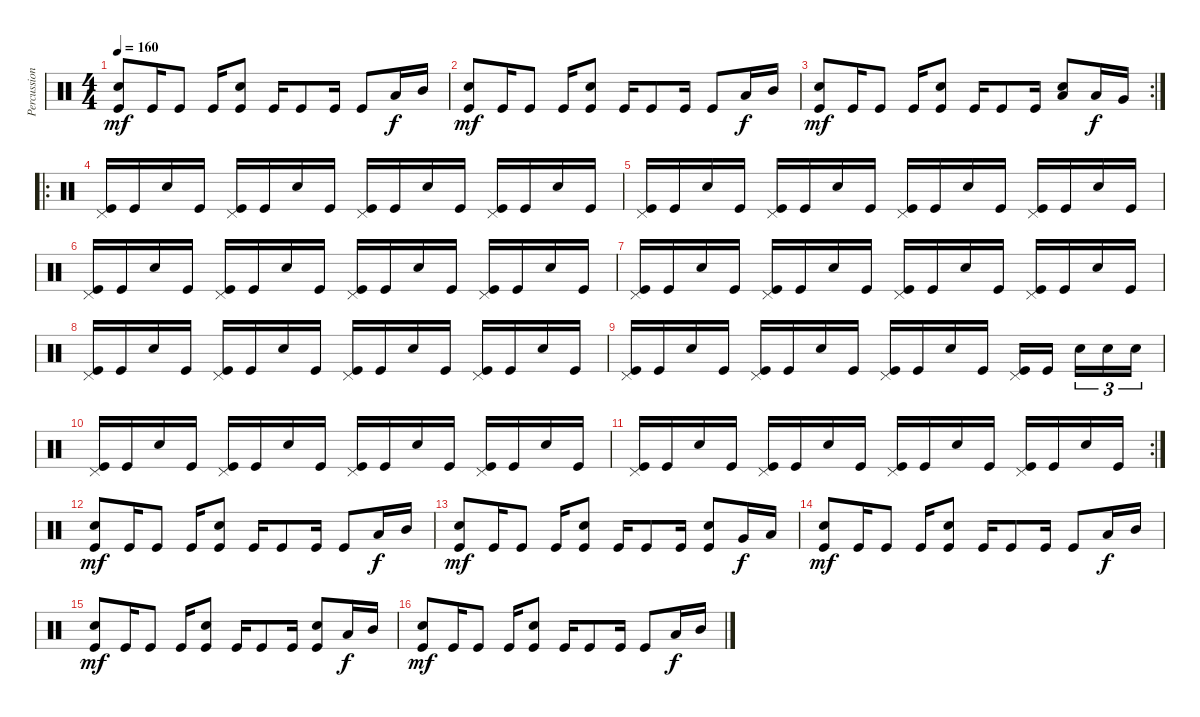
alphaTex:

\track ("Percussion" "Percussion") {instrument percussion}
\staff {score}
\articulation defaults
\ts (4 4)
\tempo 160
\clef neutral
\ks c
("Kick (hit)" "Electric Snare (hit)").8{dy mf} "Kick (hit)".16 "Kick (hit)".8 "Kick (hit)".16 ("Kick (hit)" "Electric Snare (hit)").8 "Kick (hit)".16 "Kick (hit)".8 "Kick (hit)".16 "Kick (hit)".8 "Low Tom (hit)".16{dy f} "Mid Tom (hit)".16 |
("Kick (hit)" "Electric Snare (hit)").8{dy mf} "Kick (hit)".16 "Kick (hit)".8 "Kick (hit)".16 ("Kick (hit)" "Snare (hit) 2").8 "Kick (hit)".16 "Kick (hit)".8 "Kick (hit)".16 "Kick (hit)".8 "Low Tom (hit)".16{dy f} "Mid Tom (hit)".16 |
\rc 2
("Kick (hit)" "Electric Snare (hit)").8{dy mf} "Kick (hit)".16 "Kick (hit)".8 "Kick (hit)".16 ("Kick (hit)" "Electric Snare (hit)").8 "Kick (hit)".16 "Kick (hit)".8 "Kick (hit)".16 ("Low Tom (hit)" "Electric Snare (hit)").8 "Low Tom (hit)".16{dy f} "Very Low Tom (hit)".16 |
\ro
("Kick (hit)" "Pedal Hi-Hat (hit)").16 "Kick (hit)".16 "Electric Snare (hit)".16 "Kick (hit)".16 ("Kick (hit)" "Pedal Hi-Hat (hit)").16 "Kick (hit)".16 "Electric Snare (hit)".16 "Kick (hit)".16 ("Kick (hit)" "Pedal Hi-Hat (hit)").16 "Kick (hit)".16 "Electric Snare (hit)".16 "Kick (hit)".16 ("Kick (hit)" "Pedal Hi-Hat (hit)").16 "Kick (hit)".16 "Electric Snare (hit)".16 "Kick (hit)".16 |
("Kick (hit)" "Pedal Hi-Hat (hit)").16 "Kick (hit)".16 "Electric Snare (hit)".16 "Kick (hit)".16 ("Kick (hit)" "Pedal Hi-Hat (hit)").16 "Kick (hit)".16 "Electric Snare (hit)".16 "Kick (hit)".16 ("Kick (hit)" "Pedal Hi-Hat (hit)").16 "Kick (hit)".16 "Electric Snare (hit)".16 "Kick (hit)".16 ("Kick (hit)" "Pedal Hi-Hat (hit)").16 "Kick (hit)".16 "Electric Snare (hit)".16 "Kick (hit)".16 |
("Kick (hit)" "Pedal Hi-Hat (hit)").16 "Kick (hit)".16 "Electric Snare (hit)".16 "Kick (hit)".16 ("Kick (hit)" "Pedal Hi-Hat (hit)").16 "Kick (hit)".16 "Electric Snare (hit)".16 "Kick (hit)".16 ("Kick (hit)" "Pedal Hi-Hat (hit)").16 "Kick (hit)".16 "Electric Snare (hit)".16 "Kick (hit)".16 ("Kick (hit)" "Pedal Hi-Hat (hit)").16 "Kick (hit)".16 "Electric Snare (hit)".16 "Kick (hit)".16 |
("Kick (hit)" "Pedal Hi-Hat (hit)").16 "Kick (hit)".16 "Electric Snare (hit)".16 "Kick (hit)".16 ("Kick (hit)" "Pedal Hi-Hat (hit)").16 "Kick (hit)".16 "Electric Snare (hit)".16 "Kick (hit)".16 ("Kick (hit)" "Pedal Hi-Hat (hit)").16 "Kick (hit)".16 "Electric Snare (hit)".16 "Kick (hit)".16 ("Kick (hit)" "Pedal Hi-Hat (hit)").16 "Kick (hit)".16 "Electric Snare (hit)".16 "Kick (hit)".16 |
("Kick (hit)" "Pedal Hi-Hat (hit)").16 "Kick (hit)".16 "Electric Snare (hit)".16 "Kick (hit)".16 ("Kick (hit)" "Pedal Hi-Hat (hit)").16 "Kick (hit)".16 "Electric Snare (hit)".16 "Kick (hit)".16 ("Kick (hit)" "Pedal Hi-Hat (hit)").16 "Kick (hit)".16 "Electric Snare (hit)".16 "Kick (hit)".16 ("Kick (hit)" "Pedal Hi-Hat (hit)").16 "Kick (hit)".16 "Electric Snare (hit)".16 "Kick (hit)".16 |
("Kick (hit)" "Pedal Hi-Hat (hit)").16 "Kick (hit)".16 "Electric Snare (hit)".16 "Kick (hit)".16 ("Kick (hit)" "Pedal Hi-Hat (hit)").16 "Kick (hit)".16 "Electric Snare (hit)".16 "Kick (hit)".16 ("Kick (hit)" "Pedal Hi-Hat (hit)").16 "Kick (hit)".16 "Electric Snare (hit)".16 "Kick (hit)".16 ("Kick (hit)" "Pedal Hi-Hat (hit)").16 "Kick (hit)".16 "Electric Snare (hit)".16{tu (3 2)} "Electric Snare (hit)".16{tu (3 2)} "Electric Snare (hit)".16{tu (3 2)} |
("Kick (hit)" "Pedal Hi-Hat (hit)").16 "Kick (hit)".16 "Electric Snare (hit)".16 "Kick (hit)".16 ("Kick (hit)" "Pedal Hi-Hat (hit)").16 "Kick (hit)".16 "Electric Snare (hit)".16 "Kick (hit)".16 ("Kick (hit)" "Pedal Hi-Hat (hit)").16 "Kick (hit)".16 "Electric Snare (hit)".16 "Kick (hit)".16 ("Kick (hit)" "Pedal Hi-Hat (hit)").16 "Kick (hit)".16 "Electric Snare (hit)".16 "Kick (hit)".16 |
\rc 2
("Kick (hit)" "Pedal Hi-Hat (hit)").16 "Kick (hit)".16 "Electric Snare (hit)".16 "Kick (hit)".16 ("Kick (hit)" "Pedal Hi-Hat (hit)").16 "Kick (hit)".16 "Electric Snare (hit)".16 "Kick (hit)".16 ("Kick (hit)" "Pedal Hi-Hat (hit)").16 "Kick (hit)".16 "Electric Snare (hit)".16 "Kick (hit)".16 ("Kick (hit)" "Pedal Hi-Hat (hit)").16 "Kick (hit)".16 "Electric Snare (hit)".16 "Kick (hit)".16 |
("Kick (hit)" "Electric Snare (hit)").8{dy mf} "Kick (hit)".16 "Kick (hit)".8 "Kick (hit)".16 ("Kick (hit)" "Snare (hit) 2").8 "Kick (hit)".16 "Kick (hit)".8 "Kick (hit)".16 "Kick (hit)".8 "Low Tom (hit)".16{dy f} "Mid Tom (hit)".16 |
("Kick (hit)" "Electric Snare (hit)").8{dy mf} "Kick (hit)".16 "Kick (hit)".8 "Kick (hit)".16 ("Kick (hit)" "Snare (hit) 2").8 "Kick (hit)".16 "Kick (hit)".8 "Kick (hit)".16 ("Kick (hit)" "Snare (hit) 2").8 "Very Low Tom (hit)".16{dy f} "Low Tom (hit)".16 |
("Kick (hit)" "Electric Snare (hit)").8{dy mf} "Kick (hit)".16 "Kick (hit)".8 "Kick (hit)".16 ("Kick (hit)" "Snare (hit) 2").8 "Kick (hit)".16 "Kick (hit)".8 "Kick (hit)".16 "Kick (hit)".8 "Low Tom (hit)".16{dy f} "Mid Tom (hit)".16 |
("Kick (hit)" "Electric Snare (hit)").8{dy mf} "Kick (hit)".16 "Kick (hit)".8 "Kick (hit)".16 ("Kick (hit)" "Snare (hit) 2").8 "Kick (hit)".16 "Kick (hit)".8 "Kick (hit)".16 ("Kick (hit)" "Snare (hit) 2").8 "Low Tom (hit)".16{dy f} "Mid Tom (hit)".16 |
("Kick (hit)" "Electric Snare (hit)").8{dy mf} "Kick (hit)".16 "Kick (hit)".8 "Kick (hit)".16 ("Kick (hit)" "Snare (hit) 2").8 "Kick (hit)".16 "Kick (hit)".8 "Kick (hit)".16 "Kick (hit)".8 "Low Tom (hit)".16{dy f} "Mid Tom (hit)".16
